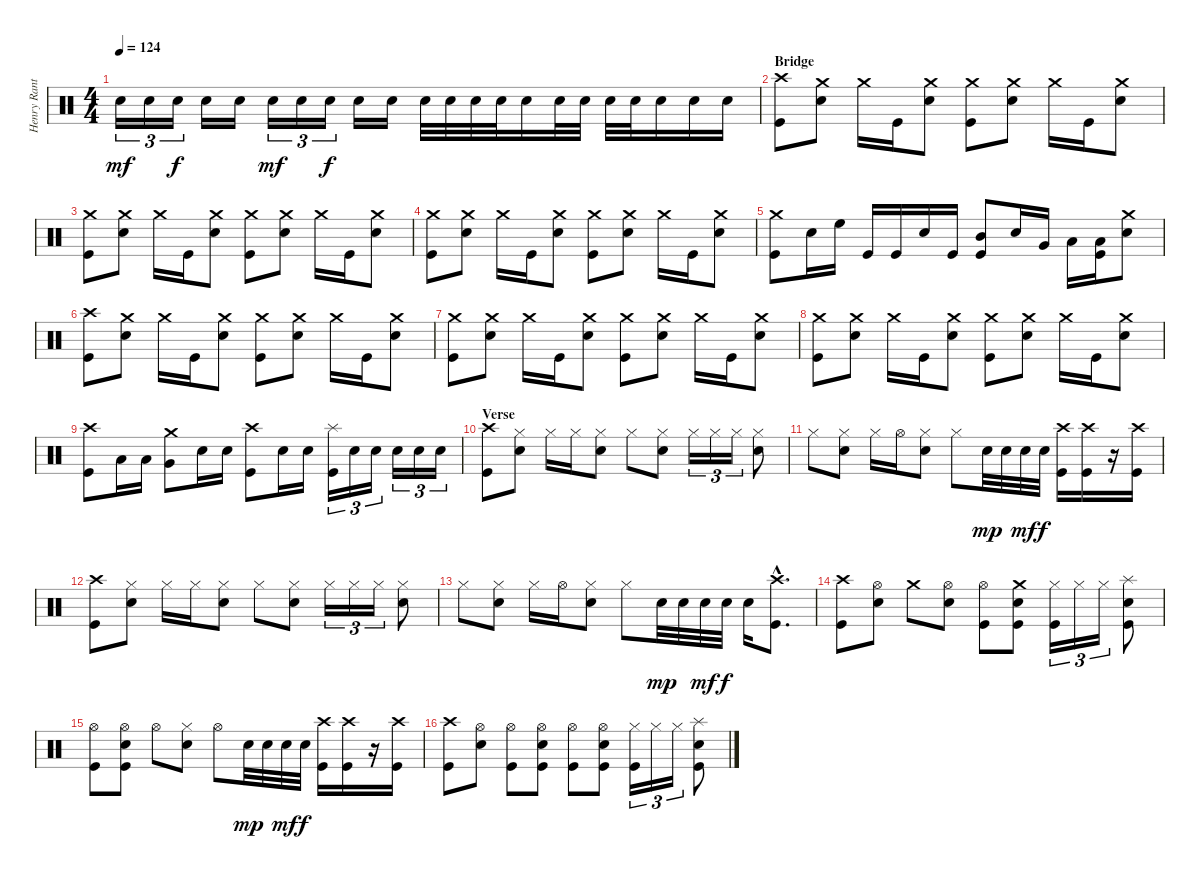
\track ("Henry Ranta" "Henry Rant") {instrument percussion}
\staff {score}
\articulation defaults
\ts (4 4)
\tempo 124
\clef neutral
\ks c "Electric Snare (hit)".16{tu (3 2) dy mf} "Electric Snare (hit)".16{tu (3 2)} "Electric Snare (hit)".16{tu (3 2) dy f} "Electric Snare (hit)".16 "Electric Snare (hit)".16 "Electric Snare (hit)".16{tu (3 2) dy mf} "Electric Snare (hit)".16{tu (3 2)} "Electric Snare (hit)".16{tu (3 2) dy f} "Electric Snare (hit)".16 "Electric Snare (hit)".16 "Electric Snare (hit)".32 "Electric Snare (hit)".32 "Electric Snare (hit)".32 "Electric Snare (hit)".32 "Electric Snare (hit)".16 "Electric Snare (hit)".32 "Electric Snare (hit)".32 "Electric Snare (hit)".32 "Electric Snare (hit)".32 "Electric Snare (hit)".16 "Electric Snare (hit)".16 "Electric Snare (hit)".16
|
\section ("" "Bridge")
("Crash high (hit)" "Kick (hit)").8 ("Crash medium (hit)" "Electric Snare (hit)").8 "Crash medium (hit)".16 "Kick (hit)".16 ("Crash medium (hit)" "Electric Snare (hit)").8 ("Crash medium (hit)" "Kick (hit)").8 ("Crash medium (hit)" "Electric Snare (hit)").8 "Crash medium (hit)".16 "Kick (hit)".16 ("Crash medium (hit)" "Electric Snare (hit)").8 |
("Crash medium (hit)" "Kick (hit)").8 ("Crash medium (hit)" "Electric Snare (hit)").8 "Crash medium (hit)".16 "Kick (hit)".16 ("Crash medium (hit)" "Electric Snare (hit)").8 ("Crash medium (hit)" "Kick (hit)").8 ("Crash medium (hit)" "Electric Snare (hit)").8 "Crash medium (hit)".16 "Kick (hit)".16 ("Crash medium (hit)" "Electric Snare (hit)").8 |
("Crash medium (hit)" "Kick (hit)").8 ("Crash medium (hit)" "Electric Snare (hit)").8 "Crash medium (hit)".16 "Kick (hit)".16 ("Crash medium (hit)" "Electric Snare (hit)").8 ("Crash medium (hit)" "Kick (hit)").8 ("Crash medium (hit)" "Electric Snare (hit)").8 "Crash medium (hit)".16 "Kick (hit)".16 ("Crash medium (hit)" "Electric Snare (hit)").8 |
("Crash medium (hit)" "Kick (hit)").8 "Electric Snare (hit)".16 "High Floor Tom (hit)".16 "Kick (hit)".16 "Kick (hit)".16 "Electric Snare (hit)".16 "Kick (hit)".16 ("Mid Tom (hit)" "Kick (hit)").8 "Electric Snare (hit)".16 "Very Low Tom (hit)".16 "Low Tom (hit)".16 ("Low Tom (hit)" "Kick (hit)").16 ("Crash medium (hit)" "Electric Snare (hit)").8 |
("Crash high (hit)" "Kick (hit)").8 ("Crash medium (hit)" "Electric Snare (hit)").8 "Crash medium (hit)".16 "Kick (hit)".16 ("Crash medium (hit)" "Electric Snare (hit)").8 ("Crash medium (hit)" "Kick (hit)").8 ("Crash medium (hit)" "Electric Snare (hit)").8 "Crash medium (hit)".16 "Kick (hit)".16 ("Crash medium (hit)" "Electric Snare (hit)").8 |
("Crash medium (hit)" "Kick (hit)").8 ("Crash medium (hit)" "Electric Snare (hit)").8 "Crash medium (hit)".16 "Kick (hit)".16 ("Crash medium (hit)" "Electric Snare (hit)").8 ("Crash medium (hit)" "Kick (hit)").8 ("Crash medium (hit)" "Electric Snare (hit)").8 "Crash medium (hit)".16 "Kick (hit)".16 ("Crash medium (hit)" "Electric Snare (hit)").8 |
("Crash medium (hit)" "Kick (hit)").8 ("Crash medium (hit)" "Electric Snare (hit)").8 "Crash medium (hit)".16 "Kick (hit)".16 ("Crash medium (hit)" "Electric Snare (hit)").8 ("Crash medium (hit)" "Kick (hit)").8 ("Crash medium (hit)" "Electric Snare (hit)").8 "Crash medium (hit)".16 "Kick (hit)".16 ("Crash medium (hit)" "Electric Snare (hit)").8 |
("Crash high (hit)" "Kick (hit)").8 "Low Tom (hit)".16 "Low Tom (hit)".16 ("Crash medium (hit)" "Very Low Tom (hit)").8 "Electric Snare (hit)".16 "Electric Snare (hit)".16 ("Crash high (hit)" "Kick (hit)").8 "Electric Snare (hit)".16 "Electric Snare (hit)".16 ("Splash (hit)" "Kick (hit)").16{tu (3 2)} "Electric Snare (hit)".16{tu (3 2)} "Electric Snare (hit)".16{tu (3 2)} "Electric Snare (hit)".16{tu (3 2)} "Electric Snare (hit)".16{tu (3 2)} "Electric Snare (hit)".16{tu (3 2)} |
\section ("" "Verse")
("Crash high (hit)" "Kick (hit)").8 ("Hi-Hat (closed)" "Electric Snare (hit)").8 "Hi-Hat (closed)".16 "Hi-Hat (closed)".16 ("Hi-Hat (closed)" "Electric Snare (hit)").8 "Hi-Hat (closed)".8 ("Hi-Hat (closed)" "Electric Snare (hit)").8 "Hi-Hat (closed)".16{tu (3 2)} "Hi-Hat (closed)".16{tu (3 2)} "Hi-Hat (closed)".16{tu (3 2)} ("Hi-Hat (closed)" "Electric Snare (hit)").8 |
"Hi-Hat (closed)".8 ("Hi-Hat (closed)" "Electric Snare (hit)").8 "Hi-Hat (closed)".16 "Hi-Hat (open)".16 ("Hi-Hat (closed)" "Electric Snare (hit)").8 "Hi-Hat (closed)".8 "Electric Snare (hit)".32{dy mp} "Electric Snare (hit)".32 "Electric Snare (hit)".32{dy mf} "Electric Snare (hit)".32{dy f} ("Crash high (hit)" "Kick (hit)").16 ("Crash high (hit)" "Kick (hit)").16 r.16 ("Crash high (hit)" "Kick (hit)").16 |
("Crash high (hit)" "Kick (hit)").8 ("Hi-Hat (closed)" "Electric Snare (hit)").8 "Hi-Hat (closed)".16 "Hi-Hat (closed)".16 ("Hi-Hat (closed)" "Electric Snare (hit)").8 "Hi-Hat (closed)".8 ("Hi-Hat (closed)" "Electric Snare (hit)").8 "Hi-Hat (closed)".16{tu (3 2)} "Hi-Hat (closed)".16{tu (3 2)} "Hi-Hat (closed)".16{tu (3 2)} ("Hi-Hat (closed)" "Electric Snare (hit)").8 |
"Hi-Hat (closed)".8 ("Hi-Hat (closed)" "Electric Snare (hit)").8 "Hi-Hat (closed)".16 "Hi-Hat (open)".16 ("Hi-Hat (closed)" "Electric Snare (hit)").8 "Hi-Hat (closed)".8 "Electric Snare (hit)".32{dy mp} "Electric Snare (hit)".32 "Electric Snare (hit)".32{dy mf} "Electric Snare (hit)".32{dy f} "Electric Snare (hit)".16 ("Crash high (hit)"{hac} "Kick (hit)"{hac}).8{d} |
("Crash high (hit)" "Kick (hit)").8 ("Hi-Hat (open)" "Electric Snare (hit)").8 "Crash medium (hit)".8 ("Hi-Hat (open)" "Electric Snare (hit)").8 ("Hi-Hat (open)" "Kick (hit)").8 ("Crash medium (hit)" "Electric Snare (hit)" "Kick (hit)").8 ("Hi-Hat (closed)" "Kick (hit)").16{tu (3 2)} "Hi-Hat (closed)".16{tu (3 2)} "Hi-Hat (closed)".16{tu (3 2)} ("Splash (hit)" "Electric Snare (hit)" "Kick (hit)").8 |
("Hi-Hat (open)" "Kick (hit)").8 ("Hi-Hat (open)" "Electric Snare (hit)" "Kick (hit)").8 "Hi-Hat (open)".8 ("Hi-Hat (closed)" "Electric Snare (hit)").8 "Hi-Hat (open)".8 "Electric Snare (hit)".32{dy mp} "Electric Snare (hit)".32 "Electric Snare (hit)".32{dy mf} "Electric Snare (hit)".32{dy f} ("Crash high (hit)" "Kick (hit)").16 ("Crash high (hit)" "Kick (hit)").16 r.16 ("Crash high (hit)" "Kick (hit)").16 |
("Crash high (hit)" "Kick (hit)").8 ("Hi-Hat (open)" "Electric Snare (hit)").8 ("Hi-Hat (open)" "Kick (hit)").8 ("Hi-Hat (open)" "Electric Snare (hit)" "Kick (hit)").8 ("Hi-Hat (open)" "Kick (hit)").8 ("Hi-Hat (open)" "Electric Snare (hit)" "Kick (hit)").8 ("Hi-Hat (closed)" "Kick (hit)").16{tu (3 2)} "Hi-Hat (closed)".16{tu (3 2)} "Hi-Hat (closed)".16{tu (3 2)} ("Splash (hit)" "Electric Snare (hit)" "Kick (hit)").8
